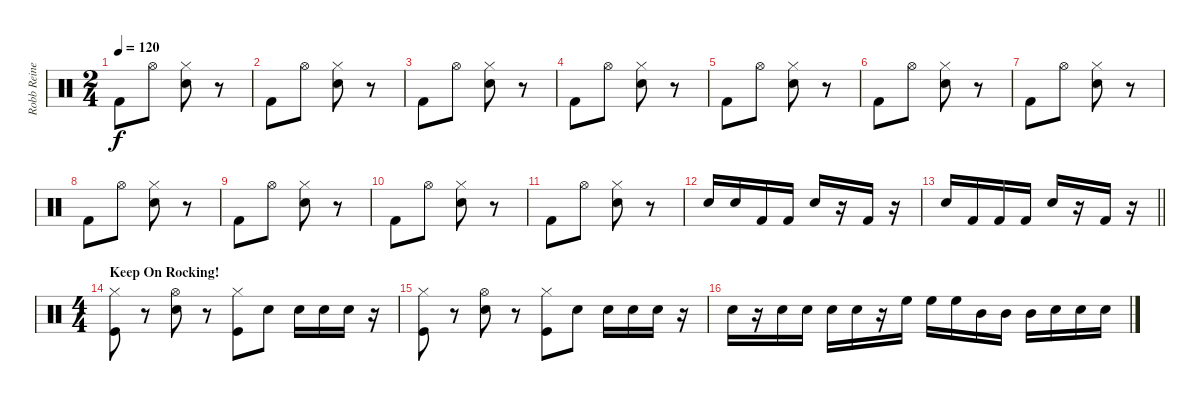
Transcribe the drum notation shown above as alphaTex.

\track ("Robb Reiner" "Robb Reine") {instrument percussion}
\staff {score}
\articulation defaults
\ts (2 4)
\tempo 120
\clef neutral
\ks c "Kick (hit) 2".8{dy f} "Hi-Hat (open)".8
("Hi-Hat (closed)" "Snare (hit) 2").8 r.8 |
"Kick (hit) 2".8 "Hi-Hat (open)".8 ("Hi-Hat (closed)" "Snare (hit) 2").8 r.8 |
"Kick (hit) 2".8 "Hi-Hat (open)".8 ("Hi-Hat (closed)" "Snare (hit) 2").8 r.8 |
"Kick (hit) 2".8 "Hi-Hat (open)".8 ("Hi-Hat (closed)" "Snare (hit) 2").8 r.8 |
"Kick (hit) 2".8 "Hi-Hat (open)".8 ("Hi-Hat (closed)" "Snare (hit) 2").8 r.8 |
"Kick (hit) 2".8 "Hi-Hat (open)".8 ("Hi-Hat (closed)" "Snare (hit) 2").8 r.8 |
"Kick (hit) 2".8 "Hi-Hat (open)".8 ("Hi-Hat (closed)" "Snare (hit) 2").8 r.8 |
"Kick (hit) 2".8 "Hi-Hat (open)".8 ("Hi-Hat (closed)" "Snare (hit) 2").8 r.8 |
"Kick (hit) 2".8 "Hi-Hat (open)".8 ("Hi-Hat (closed)" "Snare (hit) 2").8 r.8 |
"Kick (hit) 2".8 "Hi-Hat (open)".8 ("Hi-Hat (closed)" "Snare (hit) 2").8 r.8 |
"Kick (hit) 2".8 "Hi-Hat (open)".8 ("Hi-Hat (closed)" "Snare (hit) 2").8 r.8 |
"Snare (hit) 2".16 "Snare (hit) 2".16 "Kick (hit) 2".16 "Kick (hit) 2".16 "Snare (hit) 2".16 r.16 "Kick (hit) 2".16 r.16 |
\barLineRight lightlight "Snare (hit) 2".16 "Kick (hit) 2".16 "Kick (hit) 2".16 "Kick (hit) 2".16 "Snare (hit) 2".16
r.16 "Kick (hit) 2".16 r.16 |
\ts (4 4)
\section ("" "Keep On Rocking!")
("Hi-Hat (closed)" "Kick (hit)").8 r.8 ("Hi-Hat (open)" "Snare (hit) 2").8 r.8 ("Hi-Hat (closed)" "Kick (hit)").8 "Snare (hit) 2".8 "Snare (hit) 2".16 "Snare (hit) 2".16 "Snare (hit) 2".16 r.16 |
("Hi-Hat (closed)" "Kick (hit)").8 r.8 ("Hi-Hat (open)" "Snare (hit) 2").8 r.8 ("Hi-Hat (closed)" "Kick (hit)").8 "Snare (hit) 2".8 "Snare (hit) 2".16 "Snare (hit) 2".16 "Snare (hit) 2".16 r.16 |
"Snare (hit) 2".16 r.16 "Snare (hit) 2".16 "Snare (hit) 2".16 "Snare (hit) 2".16 "Snare (hit) 2".16 r.16 "High Floor Tom (hit)".16 "High Floor Tom (hit)".16 "High Floor Tom (hit)".16 "Mid Tom (hit)".16 "Mid Tom (hit)".16 "Mid Tom (hit)".16 "Snare (hit) 2".16 "Snare (hit) 2".16 "Snare (hit) 2".16
